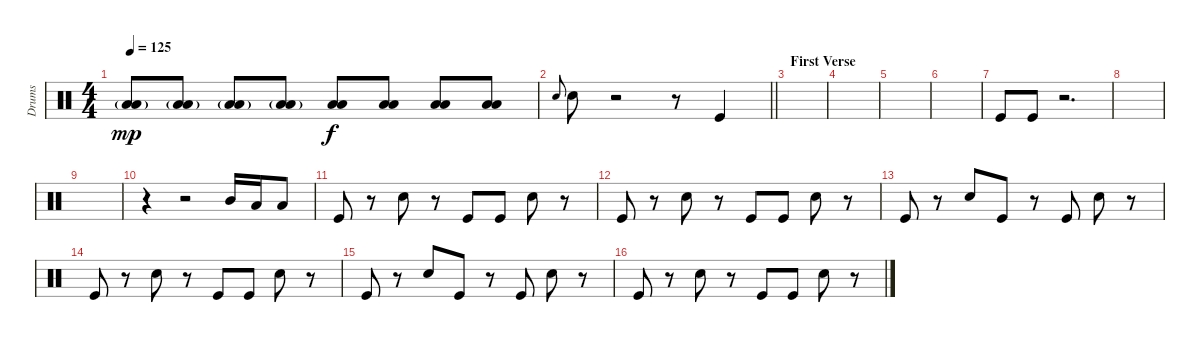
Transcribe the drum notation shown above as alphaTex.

\track ("Drums" "Drums") {instrument percussion}
\staff {score}
\articulation defaults
\ts (4 4)
\tempo 125
\clef neutral
\ks c
("Low Floor Tom (hit)"{g} "Low Tom (hit)"{g}).8{dy mp} ("Low Floor Tom (hit)"{g} "Low Tom (hit)"{g}).8 ("Low Floor Tom (hit)"{g} "Low Tom (hit)"{g}).8 ("Low Floor Tom (hit)"{g} "Low Tom (hit)"{g}).8 ("Low Floor Tom (hit)" "Low Tom (hit)").8{dy f} ("Low Floor Tom (hit)" "Low Tom (hit)").8 ("Low Floor Tom (hit)" "Low Tom (hit)").8 ("Low Floor Tom (hit)" "Low Tom (hit)").8 |
\barLineRight lightlight "Snare (hit) 2".8{gr onbeat} "Snare (hit) 2".8
r.2 r.8 "Kick (hit)".4 |
\section ("" "First Verse")
|
|
|
|
"Kick (hit)".8 "Kick (hit)".8 r.2{d} |
|
|
r.4 r.2 "Mid Tom (hit)".16 "Low Tom (hit)".16 "Low Floor Tom (hit)".8 |
"Kick (hit)".8 r.8 "Snare (hit) 2".8 r.8 "Kick (hit)".8 "Kick (hit)".8 "Snare (hit) 2".8 r.8 |
"Kick (hit)".8 r.8 "Snare (hit) 2".8 r.8 "Kick (hit)".8 "Kick (hit)".8 "Snare (hit) 2".8 r.8 |
"Kick (hit)".8 r.8 "Snare (hit) 2".8 "Kick (hit)".8 r.8 "Kick (hit)".8 "Snare (hit) 2".8 r.8 |
"Kick (hit)".8 r.8 "Snare (hit) 2".8 r.8 "Kick (hit)".8 "Kick (hit)".8 "Snare (hit) 2".8 r.8 |
"Kick (hit)".8 r.8 "Snare (hit) 2".8 "Kick (hit)".8 r.8 "Kick (hit)".8 "Snare (hit) 2".8 r.8 |
"Kick (hit)".8 r.8 "Snare (hit) 2".8 r.8 "Kick (hit)".8 "Kick (hit)".8 "Snare (hit) 2".8 r.8
